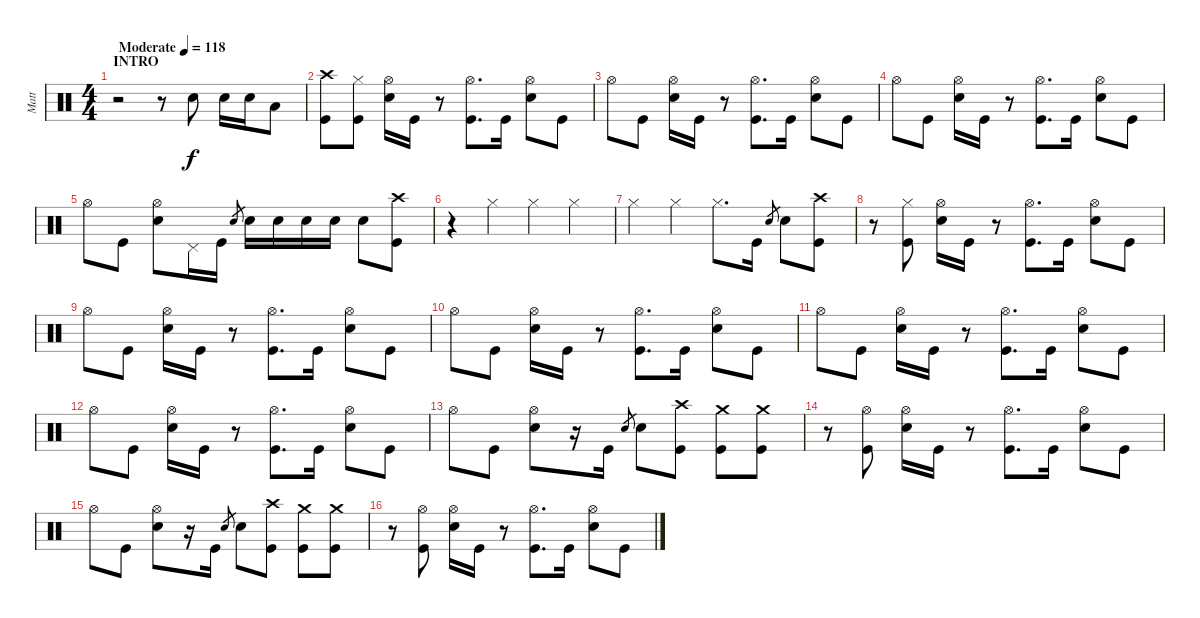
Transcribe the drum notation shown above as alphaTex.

\track ("Matt" "Matt") {instrument percussion}
\staff {score}
\articulation defaults
\ts (4 4)
\section ("" "INTRO")
\tempo (118 "Moderate")
\clef neutral
\ks c
r.2{dy f} r.8 "Snare (hit) 2".8 "Snare (hit) 2".16 "Snare (hit) 2".16 "Low Tom (hit)".8 |
("Crash high (hit)" "Kick (hit)").8 ("Kick (hit)" "Hi-Hat (closed)").8 ("Snare (hit) 2" "Hi-Hat (open)").16 "Kick (hit)".16 r.8 ("Kick (hit)" "Hi-Hat (open)").8{d} "Kick (hit)".16 ("Snare (hit) 2" "Hi-Hat (open)").8 "Kick (hit)".8 |
"Hi-Hat (open)".8 "Kick (hit)".8 ("Snare (hit) 2" "Hi-Hat (open)").16 "Kick (hit)".16 r.8 ("Kick (hit)" "Hi-Hat (open)").8{d} "Kick (hit)".16 ("Snare (hit) 2" "Hi-Hat (open)").8 "Kick (hit)".8 |
"Hi-Hat (open)".8 "Kick (hit)".8 ("Snare (hit) 2" "Hi-Hat (open)").16 "Kick (hit)".16 r.8 ("Kick (hit)" "Hi-Hat (open)").8{d} "Kick (hit)".16 ("Snare (hit) 2" "Hi-Hat (open)").8 "Kick (hit)".8 |
"Hi-Hat (open)".8 "Kick (hit)".8 ("Snare (hit) 2" "Hi-Hat (open)").8 "Pedal Hi-Hat (hit)".16 "Kick (hit)".16 "Snare (hit) 2".8{gr} "Snare (hit) 2".16 "Snare (hit) 2".16 "Snare (hit) 2".16 "Snare (hit) 2".16 "Snare (hit) 2".8 ("Crash high (hit)" "Kick (hit)").8 |
r.4 "Hi-Hat (closed)".4 "Hi-Hat (closed)".4 "Hi-Hat (closed)".4 |
"Hi-Hat (closed)".4 "Hi-Hat (closed)".4 "Hi-Hat (closed)".8{d} "Kick (hit)".16 "Snare (hit) 2".8{gr} "Snare (hit) 2".8 ("Crash high (hit)" "Kick (hit)").8 |
r.8 ("Kick (hit)" "Hi-Hat (closed)").8 ("Snare (hit) 2" "Hi-Hat (open)").16 "Kick (hit)".16 r.8 ("Kick (hit)" "Hi-Hat (open)").8{d} "Kick (hit)".16 ("Snare (hit) 2" "Hi-Hat (open)").8 "Kick (hit)".8 |
"Hi-Hat (open)".8 "Kick (hit)".8 ("Snare (hit) 2" "Hi-Hat (open)").16 "Kick (hit)".16 r.8 ("Kick (hit)" "Hi-Hat (open)").8{d} "Kick (hit)".16 ("Snare (hit) 2" "Hi-Hat (open)").8 "Kick (hit)".8 |
"Hi-Hat (open)".8 "Kick (hit)".8 ("Snare (hit) 2" "Hi-Hat (open)").16 "Kick (hit)".16 r.8 ("Kick (hit)" "Hi-Hat (open)").8{d} "Kick (hit)".16 ("Snare (hit) 2" "Hi-Hat (open)").8 "Kick (hit)".8 |
"Hi-Hat (open)".8 "Kick (hit)".8 ("Snare (hit) 2" "Hi-Hat (open)").16 "Kick (hit)".16 r.8 ("Kick (hit)" "Hi-Hat (open)").8{d} "Kick (hit)".16 ("Snare (hit) 2" "Hi-Hat (open)").8 "Kick (hit)".8 |
"Hi-Hat (open)".8 "Kick (hit)".8 ("Snare (hit) 2" "Hi-Hat (open)").16 "Kick (hit)".16 r.8 ("Kick (hit)" "Hi-Hat (open)").8{d} "Kick (hit)".16 ("Snare (hit) 2" "Hi-Hat (open)").8 "Kick (hit)".8 |
"Hi-Hat (open)".8 "Kick (hit)".8 ("Snare (hit) 2" "Hi-Hat (open)").8 r.16 "Kick (hit)".16 "Snare (hit) 2".8{gr} "Snare (hit) 2".8 ("Crash high (hit)" "Kick (hit)").8 ("Crash medium (hit)" "Kick (hit)").8 ("Crash medium (hit)" "Kick (hit)").8 |
r.8 ("Kick (hit)" "Hi-Hat (open)").8 ("Snare (hit) 2" "Hi-Hat (open)").16 "Kick (hit)".16 r.8 ("Kick (hit)" "Hi-Hat (open)").8{d} "Kick (hit)".16 ("Snare (hit) 2" "Hi-Hat (open)").8 "Kick (hit)".8 |
"Hi-Hat (open)".8 "Kick (hit)".8 ("Snare (hit) 2" "Hi-Hat (open)").8 r.16 "Kick (hit)".16 "Snare (hit) 2".8{gr} "Snare (hit) 2".8 ("Crash high (hit)" "Kick (hit)").8 ("Crash medium (hit)" "Kick (hit)").8 ("Crash medium (hit)" "Kick (hit)").8 |
r.8 ("Kick (hit)" "Hi-Hat (open)").8 ("Snare (hit) 2" "Hi-Hat (open)").16 "Kick (hit)".16 r.8 ("Kick (hit)" "Hi-Hat (open)").8{d} "Kick (hit)".16 ("Snare (hit) 2" "Hi-Hat (open)").8 "Kick (hit)".8
